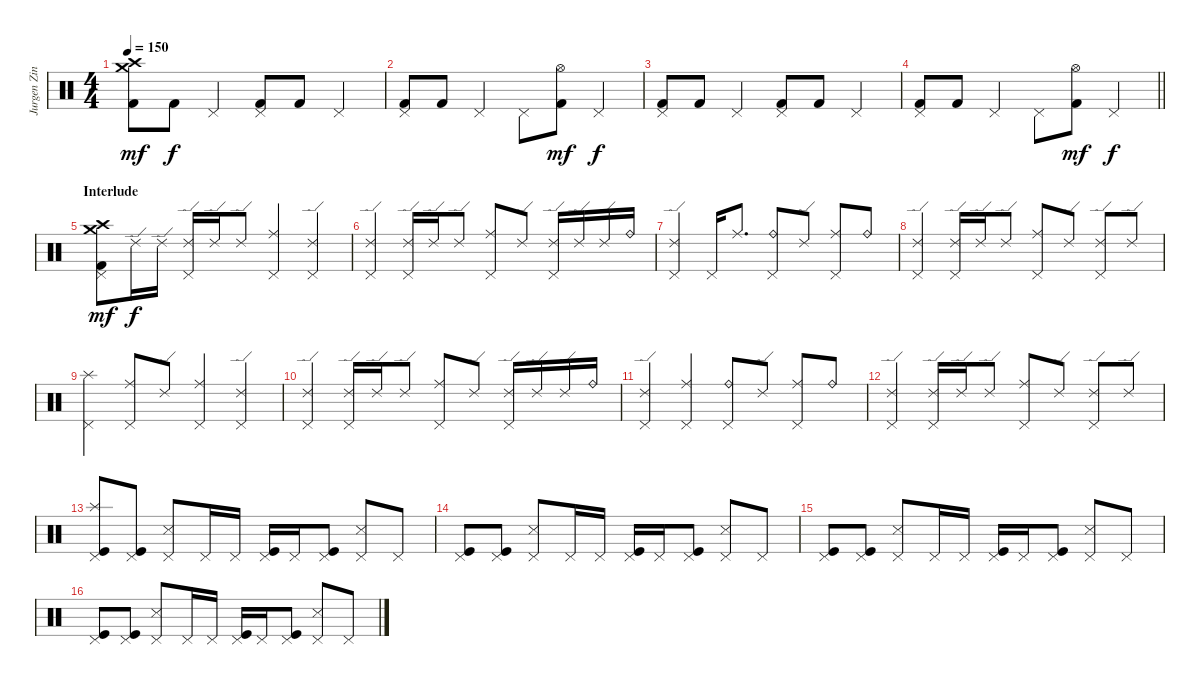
\track ("Jurgen Zing" "Jurgen Zin") {instrument percussion}
\staff {score}
\articulation defaults
\ts (4 4)
\tempo 150
\clef neutral
\ks c
("Crash medium (hit)" "Crash high (hit)" "Kick (hit) 2").8{dy mf} "Kick (hit) 2".8{dy f} "Pedal Hi-Hat (hit)".4 ("Pedal Hi-Hat (hit)" "Kick (hit) 2").8 "Kick (hit) 2".8 "Pedal Hi-Hat (hit)".4 |
("Pedal Hi-Hat (hit)" "Kick (hit) 2").8 "Kick (hit) 2".8 "Pedal Hi-Hat (hit)".4 "Pedal Hi-Hat (hit)".8 ("Hi-Hat (open)" "Kick (hit) 2").8{dy mf} "Pedal Hi-Hat (hit)".4{dy f} |
("Pedal Hi-Hat (hit)" "Kick (hit) 2").8 "Kick (hit) 2".8 "Pedal Hi-Hat (hit)".4 ("Pedal Hi-Hat (hit)" "Kick (hit) 2").8 "Kick (hit) 2".8 "Pedal Hi-Hat (hit)".4 |
\barLineRight lightlight
("Pedal Hi-Hat (hit)" "Kick (hit) 2").8 "Kick (hit) 2".8 "Pedal Hi-Hat (hit)".4 "Pedal Hi-Hat (hit)".8 ("Hi-Hat (open)" "Kick (hit) 2").8{dy mf} "Pedal Hi-Hat (hit)".4{dy f} |
\section ("" "Interlude")
("Crash medium (hit)" "Crash high (hit)" "Pedal Hi-Hat (hit)" "Kick (hit) 2").8{dy mf} "Ride (edge) 2".16{dy f volume 11} "Ride (edge) 2".16 ("Ride (edge) 2" "Pedal Hi-Hat (hit)").16 "Ride (edge) 2".16 "Ride (edge) 2".8 ("Ride (middle)" "Pedal Hi-Hat (hit)").4 ("Ride (edge) 2" "Pedal Hi-Hat (hit)").4 |
("Ride (edge) 2" "Pedal Hi-Hat (hit)").4 ("Ride (edge) 2" "Pedal Hi-Hat (hit)").16 "Ride (edge) 2".16 "Ride (edge) 2".8 ("Ride (middle)" "Pedal Hi-Hat (hit)").8 "Ride (edge) 2".8 ("Ride (edge) 2" "Pedal Hi-Hat (hit)").16 "Ride (edge) 2".16 "Ride (edge) 2".16 "Ride (bell)".16 |
("Ride (edge) 2" "Pedal Hi-Hat (hit)").4 "Pedal Hi-Hat (hit)".16 "Ride (middle)".8{d} ("Ride (bell)" "Pedal Hi-Hat (hit)").8 "Ride (edge) 2".8 ("Ride (middle)" "Pedal Hi-Hat (hit)").8 "Ride (bell)".8 |
("Ride (edge) 2" "Pedal Hi-Hat (hit)").4 ("Ride (edge) 2" "Pedal Hi-Hat (hit)").16 "Ride (edge) 2".16 "Ride (edge) 2".8 ("Ride (middle)" "Pedal Hi-Hat (hit)").8 "Ride (edge) 2".8 ("Ride (edge) 2" "Pedal Hi-Hat (hit)").8 "Ride (edge) 2".8 |
("Splash (hit)" "Pedal Hi-Hat (hit)").4 ("Ride (middle)" "Pedal Hi-Hat (hit)").8 "Ride (edge) 2".8 ("Ride (middle)" "Pedal Hi-Hat (hit)").4 ("Ride (edge) 2" "Pedal Hi-Hat (hit)").4 |
("Ride (edge) 2" "Pedal Hi-Hat (hit)").4 ("Ride (edge) 2" "Pedal Hi-Hat (hit)").16 "Ride (edge) 2".16 "Ride (edge) 2".8 ("Ride (middle)" "Pedal Hi-Hat (hit)").8 "Ride (edge) 2".8 ("Ride (edge) 2" "Pedal Hi-Hat (hit)").16 "Ride (edge) 2".16 "Ride (edge) 2".16 "Ride (bell)".16 |
("Ride (edge) 2" "Pedal Hi-Hat (hit)").4 ("Ride (middle)" "Pedal Hi-Hat (hit)").4 ("Ride (bell)" "Pedal Hi-Hat (hit)").8 "Ride (edge) 2".8 ("Ride (middle)" "Pedal Hi-Hat (hit)").8 "Ride (bell)".8 |
("Ride (edge) 2" "Pedal Hi-Hat (hit)").4 ("Ride (edge) 2" "Pedal Hi-Hat (hit)").16 "Ride (edge) 2".16 "Ride (edge) 2".8 ("Ride (middle)" "Pedal Hi-Hat (hit)").8 "Ride (edge) 2".8 ("Ride (edge) 2" "Pedal Hi-Hat (hit)").8 "Ride (edge) 2".8 |
("Splash (hit)" "Pedal Hi-Hat (hit)" "Kick (hit)").8 ("Pedal Hi-Hat (hit)" "Kick (hit)").8 ("Pedal Hi-Hat (hit)" "Metronome (hit)").8 "Pedal Hi-Hat (hit)".16 "Pedal Hi-Hat (hit)".16 ("Pedal Hi-Hat (hit)" "Kick (hit)").16 "Pedal Hi-Hat (hit)".16 ("Pedal Hi-Hat (hit)" "Kick (hit)").8 ("Pedal Hi-Hat (hit)" "Metronome (hit)").8 "Pedal Hi-Hat (hit)".8 |
("Pedal Hi-Hat (hit)" "Kick (hit)").8 ("Pedal Hi-Hat (hit)" "Kick (hit)").8 ("Pedal Hi-Hat (hit)" "Metronome (hit)").8 "Pedal Hi-Hat (hit)".16 "Pedal Hi-Hat (hit)".16 ("Pedal Hi-Hat (hit)" "Kick (hit)").16 "Pedal Hi-Hat (hit)".16 ("Pedal Hi-Hat (hit)" "Kick (hit)").8 ("Pedal Hi-Hat (hit)" "Metronome (hit)").8 "Pedal Hi-Hat (hit)".8 |
("Pedal Hi-Hat (hit)" "Kick (hit)").8 ("Pedal Hi-Hat (hit)" "Kick (hit)").8 ("Pedal Hi-Hat (hit)" "Metronome (hit)").8 "Pedal Hi-Hat (hit)".16 "Pedal Hi-Hat (hit)".16 ("Pedal Hi-Hat (hit)" "Kick (hit)").16 "Pedal Hi-Hat (hit)".16 ("Pedal Hi-Hat (hit)" "Kick (hit)").8 ("Pedal Hi-Hat (hit)" "Metronome (hit)").8 "Pedal Hi-Hat (hit)".8 |
("Pedal Hi-Hat (hit)" "Kick (hit)").8 ("Pedal Hi-Hat (hit)" "Kick (hit)").8 ("Pedal Hi-Hat (hit)" "Metronome (hit)").8 "Pedal Hi-Hat (hit)".16 "Pedal Hi-Hat (hit)".16 ("Pedal Hi-Hat (hit)" "Kick (hit)").16 "Pedal Hi-Hat (hit)".16 ("Pedal Hi-Hat (hit)" "Kick (hit)").8 ("Pedal Hi-Hat (hit)" "Metronome (hit)").8 "Pedal Hi-Hat (hit)".8
